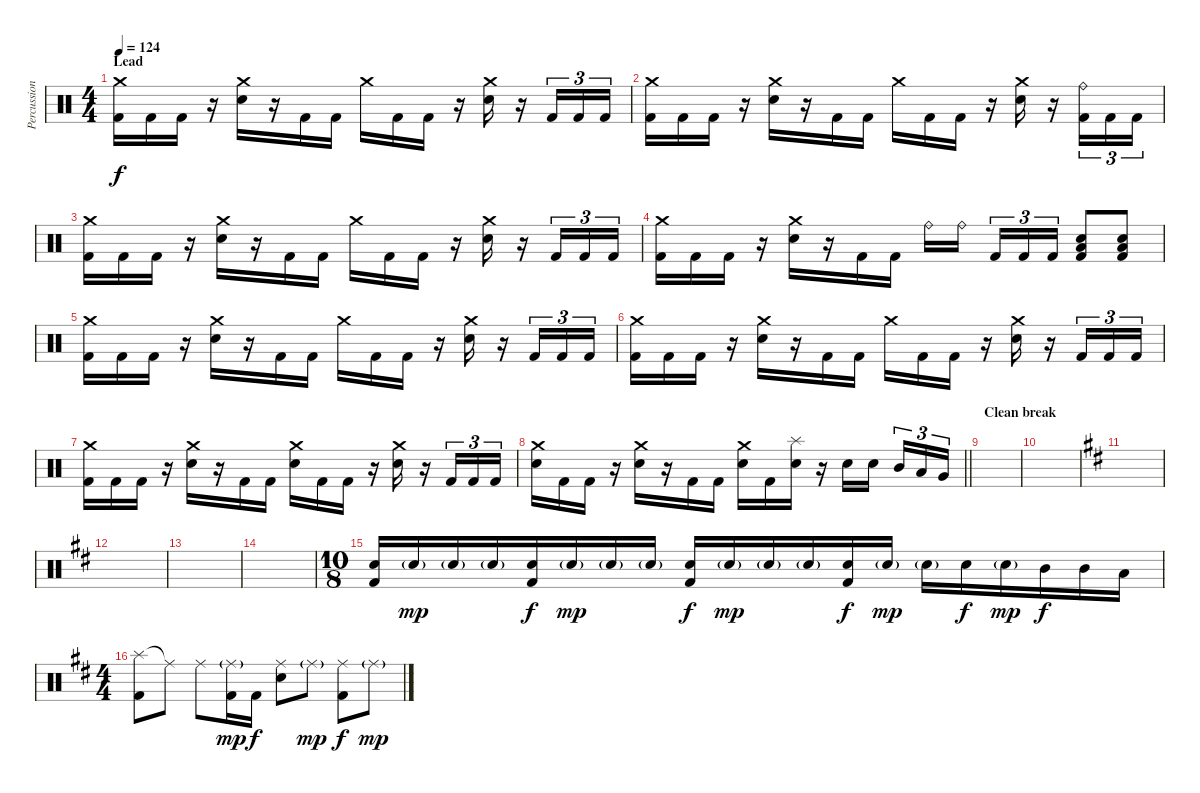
\track ("Percussion" "Percussion") {instrument percussion}
\staff {score}
\articulation defaults
\ts (4 4)
\section ("" "Lead")
\tempo 124
\clef neutral
\ks c
("Crash medium (hit)" "Kick (hit) 2").16{dy f} "Kick (hit) 2".16 "Kick (hit) 2".16 r.16 ("Crash medium (hit)" "Electric Snare (hit)").16 r.16 "Kick (hit) 2".16 "Kick (hit) 2".16 "Crash medium (hit)".16 "Kick (hit) 2".16 "Kick (hit) 2".16 r.16 ("Crash medium (hit)" "Electric Snare (hit)").16 r.16 "Kick (hit) 2".16{tu (3 2)} "Kick (hit) 2".16{tu (3 2)} "Kick (hit) 2".16{tu (3 2)} |
("Crash medium (hit)" "Kick (hit) 2").16 "Kick (hit) 2".16 "Kick (hit) 2".16 r.16 ("Crash medium (hit)" "Electric Snare (hit)").16 r.16 "Kick (hit) 2".16 "Kick (hit) 2".16 "Crash medium (hit)".16 "Kick (hit) 2".16 "Kick (hit) 2".16 r.16 ("Crash medium (hit)" "Electric Snare (hit)").16 r.16 ("Ride (bell)" "Kick (hit) 2").16{tu (3 2)} "Kick (hit) 2".16{tu (3 2)} "Kick (hit) 2".16{tu (3 2)} |
("Crash medium (hit)" "Kick (hit) 2").16 "Kick (hit) 2".16 "Kick (hit) 2".16 r.16 ("Crash medium (hit)" "Electric Snare (hit)").16 r.16 "Kick (hit) 2".16 "Kick (hit) 2".16 "Crash medium (hit)".16 "Kick (hit) 2".16 "Kick (hit) 2".16 r.16 ("Crash medium (hit)" "Electric Snare (hit)").16 r.16 "Kick (hit) 2".16{tu (3 2)} "Kick (hit) 2".16{tu (3 2)} "Kick (hit) 2".16{tu (3 2)} |
("Crash medium (hit)" "Kick (hit) 2").16 "Kick (hit) 2".16 "Kick (hit) 2".16 r.16 ("Crash medium (hit)" "Electric Snare (hit)").16 r.16 "Kick (hit) 2".16 "Kick (hit) 2".16 "Ride (bell)".16 "Ride (bell)".16{beam splitsecondary} "Kick (hit) 2".16{tu (3 2)} "Kick (hit) 2".16{tu (3 2)} "Kick (hit) 2".16{tu (3 2)} ("Electric Snare (hit)" "Low Tom (hit)" "Kick (hit) 2").8 ("Electric Snare (hit)" "Low Tom (hit)" "Kick (hit) 2").8 |
("Crash medium (hit)" "Kick (hit) 2").16 "Kick (hit) 2".16 "Kick (hit) 2".16 r.16 ("Crash medium (hit)" "Electric Snare (hit)").16 r.16 "Kick (hit) 2".16 "Kick (hit) 2".16 "Crash medium (hit)".16 "Kick (hit) 2".16 "Kick (hit) 2".16 r.16 ("Crash medium (hit)" "Electric Snare (hit)").16 r.16 "Kick (hit) 2".16{tu (3 2)} "Kick (hit) 2".16{tu (3 2)} "Kick (hit) 2".16{tu (3 2)} |
("Crash medium (hit)" "Kick (hit) 2").16 "Kick (hit) 2".16 "Kick (hit) 2".16 r.16 ("Crash medium (hit)" "Electric Snare (hit)").16 r.16 "Kick (hit) 2".16 "Kick (hit) 2".16 "Crash medium (hit)".16 "Kick (hit) 2".16 "Kick (hit) 2".16 r.16 ("Crash medium (hit)" "Electric Snare (hit)").16 r.16 "Kick (hit) 2".16{tu (3 2)} "Kick (hit) 2".16{tu (3 2)} "Kick (hit) 2".16{tu (3 2)} |
("Crash medium (hit)" "Kick (hit) 2").16 "Kick (hit) 2".16 "Kick (hit) 2".16 r.16 ("Crash medium (hit)" "Electric Snare (hit)").16 r.16 "Kick (hit) 2".16 "Kick (hit) 2".16 ("Crash medium (hit)" "Electric Snare (hit)").16 "Kick (hit) 2".16 "Kick (hit) 2".16 r.16 ("Crash medium (hit)" "Electric Snare (hit)").16 r.16 "Kick (hit) 2".16{tu (3 2)} "Kick (hit) 2".16{tu (3 2)} "Kick (hit) 2".16{tu (3 2)} |
\barLineRight lightlight
("Crash medium (hit)" "Electric Snare (hit)").16 "Kick (hit) 2".16 "Kick (hit) 2".16 r.16 ("Crash medium (hit)" "Electric Snare (hit)").16 r.16 "Kick (hit) 2".16 "Kick (hit) 2".16 ("Crash medium (hit)" "Electric Snare (hit)").16 "Kick (hit) 2".16 ("Splash (hit)" "Electric Snare (hit)").16 r.16 "Electric Snare (hit)".16 "Electric Snare (hit)".16{beam splitsecondary} "Mid Tom (hit)".16{tu (3 2)} "Low Tom (hit)".16{tu (3 2)} "Very Low Tom (hit)".16{tu (3 2)} |
\section ("" "Clean break")
|
|
\ks bminor
|
|
|
|
\ts (10 8)
("Electric Snare (hit)" "Kick (hit) 2").16 "Electric Snare (hit)"{g}.16{dy mp} "Electric Snare (hit)"{g}.16 "Electric Snare (hit)"{g}.16 ("Electric Snare (hit)" "Kick (hit) 2").16{dy f} "Electric Snare (hit)"{g}.16{dy mp} "Electric Snare (hit)"{g}.16 "Electric Snare (hit)"{g}.16 ("Electric Snare (hit)" "Kick (hit) 2").16{dy f} "Electric Snare (hit)"{g}.16{dy mp} "Electric Snare (hit)"{g}.16 "Electric Snare (hit)"{g}.16 ("Electric Snare (hit)" "Kick (hit) 2").16{dy f} "Electric Snare (hit)"{g}.16{dy mp} "Electric Snare (hit)"{g}.16 "Electric Snare (hit)".16{dy f} "Electric Snare (hit)"{g}.16{dy mp} "Mid Tom (hit)".16{dy f} "Mid Tom (hit)".16 "Low Tom (hit)".16 |
\ts (4 4)
("Splash (hit)" "Kick (hit) 2").8 "Ride (middle)"{t}.8 "Ride (middle)".8 ("Ride (middle)"{g} "Kick (hit) 2").16{dy mp} "Kick (hit) 2".16{dy f} ("Ride (middle)" "Electric Snare (hit)").8 "Ride (middle)"{g}.8{dy mp} ("Ride (middle)" "Kick (hit) 2").8{dy f} "Ride (middle)"{g}.8{dy mp}
